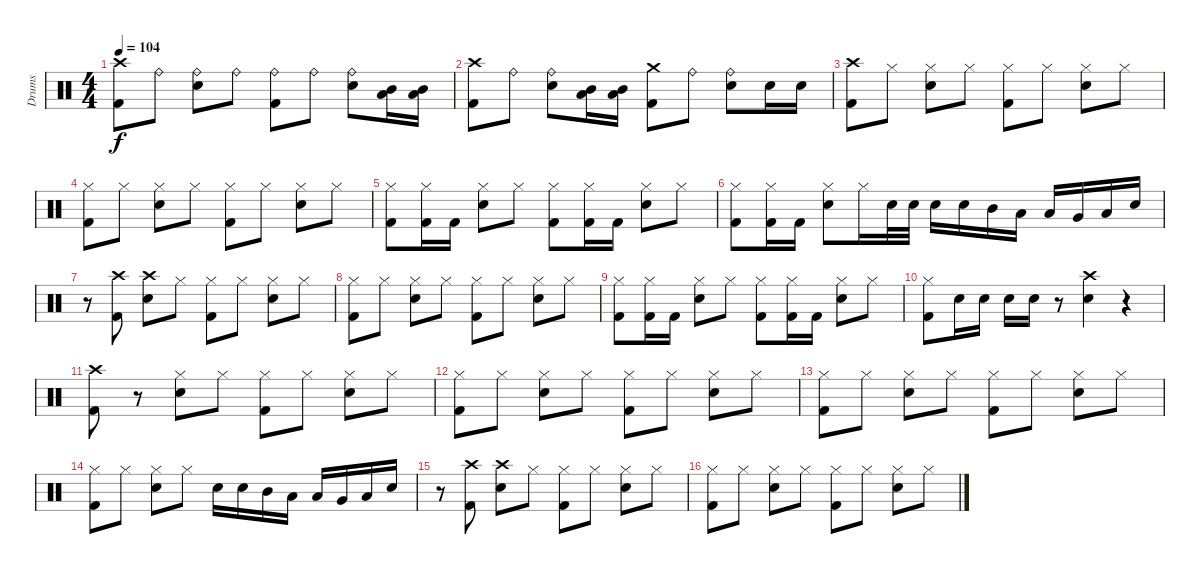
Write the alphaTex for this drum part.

\track ("Drums" "Drums") {instrument percussion}
\staff {score}
\articulation defaults
\ts (4 4)
\tempo 104
\clef neutral
\ks c
("Kick (hit) 2" "Crash high (hit)").8{dy f} "Ride (bell)".8 ("Snare (hit) 2" "Ride (bell)").8 "Ride (bell)".8 ("Ride (bell)" "Kick (hit) 2").8 "Ride (bell)".8 ("Snare (hit) 2" "Ride (bell)").8 ("Mid Tom (hit)" "Low Tom (hit)").16 ("Mid Tom (hit)" "Low Tom (hit)").16 |
("Kick (hit) 2" "Crash high (hit)").8 "Ride (bell)".8 ("Ride (bell)" "Snare (hit) 2").8 ("Mid Tom (hit)" "Low Tom (hit)").16 ("Mid Tom (hit)" "Low Tom (hit)").16 ("Crash medium (hit)" "Kick (hit) 2").8 "Ride (bell)".8 ("Ride (bell)" "Snare (hit) 2").8 "Snare (hit) 2".16 "Snare (hit) 2".16 |
("Kick (hit) 2" "Crash high (hit)").8 "Hi-Hat (closed)".8 ("Hi-Hat (closed)" "Snare (hit) 2").8 "Hi-Hat (closed)".8 ("Kick (hit) 2" "Hi-Hat (closed)").8 "Hi-Hat (closed)".8 ("Hi-Hat (closed)" "Snare (hit) 2").8 "Hi-Hat (closed)".8 |
("Kick (hit) 2" "Hi-Hat (closed)").8 "Hi-Hat (closed)".8 ("Hi-Hat (closed)" "Snare (hit) 2").8 "Hi-Hat (closed)".8 ("Hi-Hat (closed)" "Kick (hit) 2").8 "Hi-Hat (closed)".8 ("Hi-Hat (closed)" "Snare (hit) 2").8 "Hi-Hat (closed)".8 |
("Hi-Hat (closed)" "Kick (hit) 2").8 ("Kick (hit) 2" "Hi-Hat (closed)").16 "Kick (hit) 2".16 ("Snare (hit) 2" "Hi-Hat (closed)").8 "Hi-Hat (closed)".8 ("Kick (hit) 2" "Hi-Hat (closed)").8 ("Kick (hit) 2" "Hi-Hat (closed)").16 "Kick (hit) 2".16 ("Snare (hit) 2" "Hi-Hat (closed)").8 "Hi-Hat (closed)".8 |
("Hi-Hat (closed)" "Kick (hit) 2").8 ("Kick (hit) 2" "Hi-Hat (closed)").16 "Kick (hit) 2".16 ("Hi-Hat (closed)" "Snare (hit) 2").8 "Hi-Hat (closed)".16 "Snare (hit) 2".32 "Snare (hit) 2".32 "Snare (hit) 2".16 "Snare (hit) 2".16 "Mid Tom (hit)".16 "Low Tom (hit)".16 "Low Tom (hit)".16 "Very Low Tom (hit)".16 "Low Floor Tom (hit)".16 "Snare (hit) 2".16 |
r.8 ("Kick (hit) 2" "Crash high (hit)").8 ("Crash high (hit)" "Snare (hit) 2").8 "Hi-Hat (closed)".8 ("Kick (hit) 2" "Hi-Hat (closed)").8 "Hi-Hat (closed)".8 ("Hi-Hat (closed)" "Snare (hit) 2").8 "Hi-Hat (closed)".8 |
("Kick (hit) 2" "Hi-Hat (closed)").8 "Hi-Hat (closed)".8 ("Snare (hit) 2" "Hi-Hat (closed)").8 "Hi-Hat (closed)".8 ("Hi-Hat (closed)" "Kick (hit) 2").8 "Hi-Hat (closed)".8 ("Snare (hit) 2" "Hi-Hat (closed)").8 "Hi-Hat (closed)".8 |
("Hi-Hat (closed)" "Kick (hit) 2").8 ("Kick (hit) 2" "Hi-Hat (closed)").16 "Kick (hit) 2".16 ("Hi-Hat (closed)" "Snare (hit) 2").8 "Hi-Hat (closed)".8 ("Hi-Hat (closed)" "Kick (hit) 2").8 ("Kick (hit) 2" "Hi-Hat (closed)").16 "Kick (hit) 2".16 ("Hi-Hat (closed)" "Snare (hit) 2").8 "Hi-Hat (closed)".8 |
("Kick (hit) 2" "Hi-Hat (closed)").8 "Snare (hit) 2".16 "Snare (hit) 2".16 "Snare (hit) 2".16 "Snare (hit) 2".16 r.8 ("Crash high (hit)" "Snare (hit) 2").4 r.4 |
("Kick (hit) 2" "Crash high (hit)").8 r.8 ("Hi-Hat (closed)" "Snare (hit) 2").8 "Hi-Hat (closed)".8 ("Hi-Hat (closed)" "Kick (hit) 2").8 "Hi-Hat (closed)".8 ("Snare (hit) 2" "Hi-Hat (closed)").8 "Hi-Hat (closed)".8 |
("Kick (hit) 2" "Hi-Hat (closed)").8 "Hi-Hat (closed)".8 ("Hi-Hat (closed)" "Snare (hit) 2").8 "Hi-Hat (closed)".8 ("Hi-Hat (closed)" "Kick (hit) 2").8 "Hi-Hat (closed)".8 ("Snare (hit) 2" "Hi-Hat (closed)").8 "Hi-Hat (closed)".8 |
("Hi-Hat (closed)" "Kick (hit) 2").8 "Hi-Hat (closed)".8 ("Hi-Hat (closed)" "Snare (hit) 2").8 "Hi-Hat (closed)".8 ("Hi-Hat (closed)" "Kick (hit) 2").8 "Hi-Hat (closed)".8 ("Hi-Hat (closed)" "Snare (hit) 2").8 "Hi-Hat (closed)".8 |
("Kick (hit) 2" "Hi-Hat (closed)").8 "Hi-Hat (closed)".8 ("Snare (hit) 2" "Hi-Hat (closed)").8 "Hi-Hat (closed)".8 "Snare (hit) 2".16 "Snare (hit) 2".16 "Mid Tom (hit)".16 "Low Tom (hit)".16 "Low Tom (hit)".16 "Very Low Tom (hit)".16 "Low Floor Tom (hit)".16 "Snare (hit) 2".16 |
r.8 ("Crash high (hit)" "Kick (hit) 2").8 ("Crash high (hit)" "Snare (hit) 2").8 "Hi-Hat (closed)".8 ("Hi-Hat (closed)" "Kick (hit) 2").8 "Hi-Hat (closed)".8 ("Hi-Hat (closed)" "Snare (hit) 2").8 "Hi-Hat (closed)".8 |
("Kick (hit) 2" "Hi-Hat (closed)").8 "Hi-Hat (closed)".8 ("Hi-Hat (closed)" "Snare (hit) 2").8 "Hi-Hat (closed)".8 ("Hi-Hat (closed)" "Kick (hit) 2").8 "Hi-Hat (closed)".8 ("Hi-Hat (closed)" "Snare (hit) 2").8 "Hi-Hat (closed)".8
